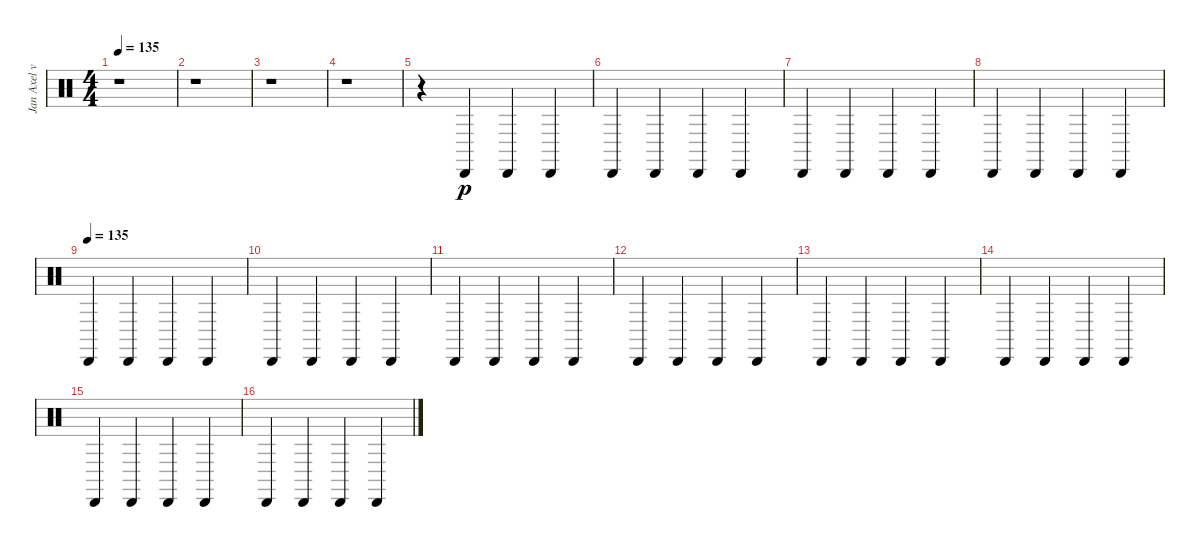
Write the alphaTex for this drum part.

\track ("Jan Axel von Bloomberg : Drums" "Jan Axel v") {instrument percussion}
\staff {score}
\articulation defaults
\ts (4 4)
\tempo 135
\clef neutral
\ks c
r.1{dy p} |
r.1 |
r.1 |
r.1 |
r.4 "Cabasa (hit)".4{balance 16} "Cabasa (hit)".4{balance 0} "Cabasa (hit)".4{balance 16} |
"Cabasa (hit)".4{balance 0} "Cabasa (hit)".4{balance 16} "Cabasa (hit)".4{balance 0} "Cabasa (hit)".4{balance 16} |
"Cabasa (hit)".4{balance 0} "Cabasa (hit)".4{balance 16} "Cabasa (hit)".4{balance 0} "Cabasa (hit)".4{balance 16} |
"Cabasa (hit)".4{balance 0} "Cabasa (hit)".4{balance 16} "Cabasa (hit)".4{balance 0} "Cabasa (hit)".4{balance 16} |
\tempo (135)
"Cabasa (hit)".4{balance 0} "Cabasa (hit)".4{balance 16} "Cabasa (hit)".4{balance 0} "Cabasa (hit)".4{balance 16} |
"Cabasa (hit)".4{balance 0} "Cabasa (hit)".4{balance 16} "Cabasa (hit)".4{balance 0} "Cabasa (hit)".4{balance 16} |
"Cabasa (hit)".4{balance 0} "Cabasa (hit)".4{balance 16} "Cabasa (hit)".4{balance 0} "Cabasa (hit)".4{balance 16} |
"Cabasa (hit)".4{balance 0} "Cabasa (hit)".4{balance 16} "Cabasa (hit)".4{balance 0} "Cabasa (hit)".4{balance 16} |
"Cabasa (hit)".4{balance 0} "Cabasa (hit)".4{balance 16} "Cabasa (hit)".4{balance 0} "Cabasa (hit)".4{balance 16} |
"Cabasa (hit)".4{balance 0} "Cabasa (hit)".4{balance 16} "Cabasa (hit)".4{balance 0} "Cabasa (hit)".4{balance 16} |
"Cabasa (hit)".4{balance 0} "Cabasa (hit)".4{balance 16} "Cabasa (hit)".4{balance 0} "Cabasa (hit)".4{balance 16} |
"Cabasa (hit)".4{balance 0} "Cabasa (hit)".4{balance 16} "Cabasa (hit)".4{balance 0} "Cabasa (hit)".4{balance 16}
